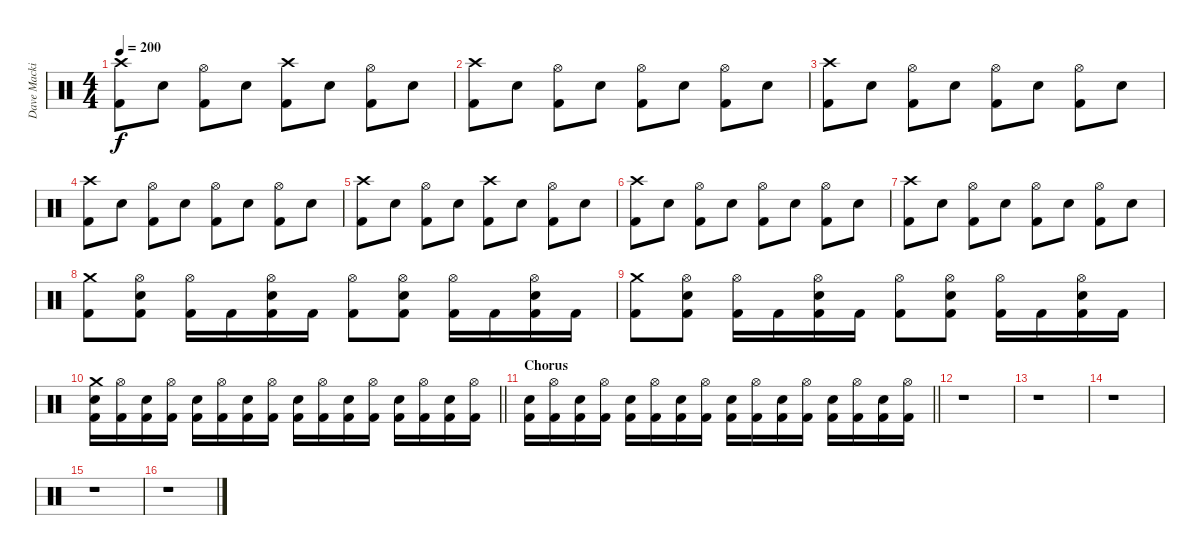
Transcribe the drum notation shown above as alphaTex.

\track ("Dave Mackintosh | Drums" "Dave Macki") {instrument percussion}
\staff {score}
\articulation defaults
\ts (4 4)
\tempo 200
\clef neutral
\ks c
("Crash high (hit)" "Kick (hit) 2").8{dy f} "Snare (hit) 2".8 ("Hi-Hat (open)" "Kick (hit) 2").8 "Snare (hit) 2".8 ("Crash high (hit)" "Kick (hit) 2").8 "Snare (hit) 2".8 ("Hi-Hat (open)" "Kick (hit) 2").8 "Snare (hit) 2".8 |
("Crash high (hit)" "Kick (hit) 2").8 "Snare (hit) 2".8 ("Hi-Hat (open)" "Kick (hit) 2").8 "Snare (hit) 2".8 ("Hi-Hat (open)" "Kick (hit) 2").8 "Snare (hit) 2".8 ("Hi-Hat (open)" "Kick (hit) 2").8 "Snare (hit) 2".8 |
("Crash high (hit)" "Kick (hit) 2").8 "Snare (hit) 2".8 ("Hi-Hat (open)" "Kick (hit) 2").8 "Snare (hit) 2".8 ("Hi-Hat (open)" "Kick (hit) 2").8 "Snare (hit) 2".8 ("Hi-Hat (open)" "Kick (hit) 2").8 "Snare (hit) 2".8 |
("Crash high (hit)" "Kick (hit) 2").8 "Snare (hit) 2".8 ("Hi-Hat (open)" "Kick (hit) 2").8 "Snare (hit) 2".8 ("Hi-Hat (open)" "Kick (hit) 2").8 "Snare (hit) 2".8 ("Hi-Hat (open)" "Kick (hit) 2").8 "Snare (hit) 2".8 |
("Crash high (hit)" "Kick (hit) 2").8 "Snare (hit) 2".8 ("Hi-Hat (open)" "Kick (hit) 2").8 "Snare (hit) 2".8 ("Crash high (hit)" "Kick (hit) 2").8 "Snare (hit) 2".8 ("Hi-Hat (open)" "Kick (hit) 2").8 "Snare (hit) 2".8 |
("Crash high (hit)" "Kick (hit) 2").8 "Snare (hit) 2".8 ("Hi-Hat (open)" "Kick (hit) 2").8 "Snare (hit) 2".8 ("Hi-Hat (open)" "Kick (hit) 2").8 "Snare (hit) 2".8 ("Hi-Hat (open)" "Kick (hit) 2").8 "Snare (hit) 2".8 |
("Crash high (hit)" "Kick (hit) 2").8 "Snare (hit) 2".8 ("Hi-Hat (open)" "Kick (hit) 2").8 "Snare (hit) 2".8 ("Hi-Hat (open)" "Kick (hit) 2").8 "Snare (hit) 2".8 ("Hi-Hat (open)" "Kick (hit) 2").8 "Snare (hit) 2".8 |
("Crash medium (hit)" "Kick (hit) 2").8 ("Hi-Hat (open)" "Snare (hit) 2" "Kick (hit) 2").8 ("Hi-Hat (open)" "Kick (hit) 2").16 "Kick (hit) 2".16 ("Hi-Hat (open)" "Snare (hit) 2" "Kick (hit) 2").16 "Kick (hit) 2".16 ("Hi-Hat (open)" "Kick (hit) 2").8 ("Hi-Hat (open)" "Snare (hit) 2" "Kick (hit) 2").8 ("Hi-Hat (open)" "Kick (hit) 2").16 "Kick (hit) 2".16 ("Hi-Hat (open)" "Snare (hit) 2" "Kick (hit) 2").16 "Kick (hit) 2".16 |
("Crash medium (hit)" "Kick (hit) 2").8 ("Hi-Hat (open)" "Snare (hit) 2" "Kick (hit) 2").8 ("Hi-Hat (open)" "Kick (hit) 2").16 "Kick (hit) 2".16 ("Hi-Hat (open)" "Snare (hit) 2" "Kick (hit) 2").16 "Kick (hit) 2".16 ("Hi-Hat (open)" "Kick (hit) 2").8 ("Hi-Hat (open)" "Snare (hit) 2" "Kick (hit) 2").8 ("Hi-Hat (open)" "Kick (hit) 2").16 "Kick (hit) 2".16 ("Hi-Hat (open)" "Snare (hit) 2" "Kick (hit) 2").16 "Kick (hit) 2".16 |
\barLineRight lightlight
("Crash medium (hit)" "Snare (hit) 2" "Kick (hit) 2").16 ("Hi-Hat (open)" "Kick (hit) 2").16 ("Snare (hit) 2" "Kick (hit) 2").16 ("Hi-Hat (open)" "Kick (hit) 2").16 ("Snare (hit) 2" "Kick (hit) 2").16 ("Hi-Hat (open)" "Kick (hit) 2").16 ("Snare (hit) 2" "Kick (hit) 2").16 ("Hi-Hat (open)" "Kick (hit) 2").16 ("Snare (hit) 2" "Kick (hit) 2").16 ("Hi-Hat (open)" "Kick (hit) 2").16 ("Snare (hit) 2" "Kick (hit) 2").16 ("Hi-Hat (open)" "Kick (hit) 2").16 ("Snare (hit) 2" "Kick (hit) 2").16 ("Hi-Hat (open)" "Kick (hit) 2").16 ("Snare (hit) 2" "Kick (hit) 2").16 ("Hi-Hat (open)" "Kick (hit) 2").16 |
\section ("" "Chorus")
\barLineRight lightlight
("Snare (hit) 2" "Kick (hit) 2").16 ("Hi-Hat (open)" "Kick (hit) 2").16 ("Snare (hit) 2" "Kick (hit) 2").16 ("Hi-Hat (open)" "Kick (hit) 2").16 ("Snare (hit) 2" "Kick (hit) 2").16 ("Hi-Hat (open)" "Kick (hit) 2").16 ("Snare (hit) 2" "Kick (hit) 2").16 ("Hi-Hat (open)" "Kick (hit) 2").16 ("Snare (hit) 2" "Kick (hit) 2").16 ("Hi-Hat (open)" "Kick (hit) 2").16 ("Snare (hit) 2" "Kick (hit) 2").16 ("Hi-Hat (open)" "Kick (hit) 2").16 ("Snare (hit) 2" "Kick (hit) 2").16 ("Hi-Hat (open)" "Kick (hit) 2").16 ("Snare (hit) 2" "Kick (hit) 2").16 ("Hi-Hat (open)" "Kick (hit) 2").16 |
r.1 |
r.1 |
r.1 |
r.1 |
r.1
